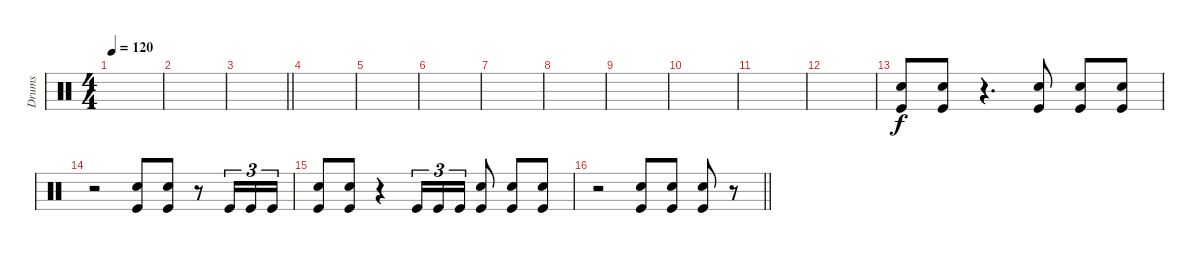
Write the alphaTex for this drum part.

\track ("Drums" "Drums") {instrument percussion}
\staff
\articulation defaults
\ts (4 4)
\tempo 120
\clef neutral
\ks c
|
|
\barLineRight lightlight
|
|
|
|
|
|
|
|
|
|
("Electric Snare (hit)" "Kick (hit)").8 ("Electric Snare (hit)" "Kick (hit)").8 r.4{d} ("Electric Snare (hit)" "Kick (hit)").8 ("Electric Snare (hit)" "Kick (hit)").8 ("Electric Snare (hit)" "Kick (hit)").8 |
r.2 ("Electric Snare (hit)" "Kick (hit)").8 ("Electric Snare (hit)" "Kick (hit)").8 r.8 "Kick (hit)".16{tu (3 2)} "Kick (hit)".16{tu (3 2)} "Kick (hit)".16{tu (3 2)} |
("Electric Snare (hit)" "Kick (hit)").8 ("Electric Snare (hit)" "Kick (hit)").8 r.4 "Kick (hit)".16{tu (3 2)} "Kick (hit)".16{tu (3 2)} "Kick (hit)".16{tu (3 2)} ("Electric Snare (hit)" "Kick (hit)").8 ("Electric Snare (hit)" "Kick (hit)").8 ("Electric Snare (hit)" "Kick (hit)").8 |
\barLineRight lightlight
r.2 ("Electric Snare (hit)" "Kick (hit)").8 ("Electric Snare (hit)" "Kick (hit)").8 ("Electric Snare (hit)" "Kick (hit)").8 r.8
